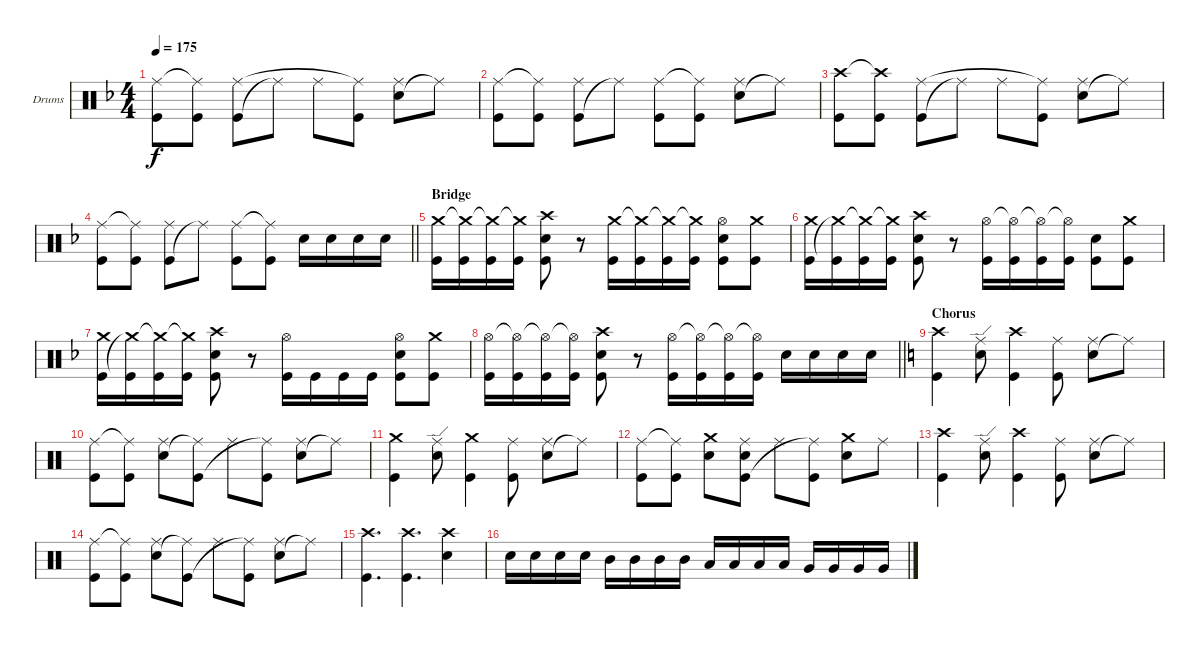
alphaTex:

\bracketExtendMode groupsimilarinstruments
\firstSystemTrackNameOrientation horizontal
\otherSystemsTrackNameOrientation horizontal
\track ("Drumkit" "Drums") {instrument percussion}
\staff {score}
\articulation defaults
\ts (4 4)
\tempo 175
\clef neutral
\ks f
("Kick (hit)" "Ride (middle)").8{dy f} ("Kick (hit)" "Ride (middle)"{t}).8 ("Kick (hit)" "Ride (middle)").8 "Ride (middle)"{t}.8 "Ride (middle)".8 ("Kick (hit)" "Ride (middle)"{t}).8 ("Snare (hit) 2" "Ride (middle)").8 "Ride (middle)"{t}.8 |
("Kick (hit)" "Ride (middle)").8 ("Kick (hit)" "Ride (middle)"{t}).8 ("Kick (hit)" "Ride (middle)").8 "Ride (middle)"{t}.8 ("Kick (hit)" "Ride (middle)").8 ("Kick (hit)" "Ride (middle)"{t}).8 ("Snare (hit) 2" "Ride (middle)").8 "Ride (middle)"{t}.8 |
("Kick (hit)" "Crash high (hit)").8 ("Kick (hit)" "Crash high (hit)"{t}).8 ("Kick (hit)" "Ride (middle)").8 "Ride (middle)"{t}.8 "Ride (middle)".8 ("Kick (hit)" "Ride (middle)"{t}).8 ("Snare (hit) 2" "Ride (middle)").8 "Ride (middle)"{t}.8 |
\barLineRight lightlight
("Kick (hit)" "Ride (middle)").8 ("Kick (hit)" "Ride (middle)"{t}).8 ("Kick (hit)" "Ride (middle)").8 "Ride (middle)"{t}.8 ("Kick (hit)" "Ride (middle)").8 ("Kick (hit)" "Ride (middle)"{t}).8 "Snare (hit) 2".16 "Snare (hit) 2".16 "Snare (hit) 2".16 "Snare (hit) 2".16 |
\section ("" "Bridge")
("Kick (hit)" "Crash medium (hit)").16 ("Kick (hit)" "Crash medium (hit)"{t}).16 ("Kick (hit)" "Crash medium (hit)"{t}).16 ("Kick (hit)" "Crash medium (hit)"{t}).16 ("Crash high (hit)" "Snare (hit) 2" "Kick (hit)").8 r.8 ("Kick (hit)" "Crash medium (hit)").16 ("Kick (hit)" "Crash medium (hit)"{t}).16 ("Kick (hit)" "Crash medium (hit)"{t}).16 ("Kick (hit)" "Crash medium (hit)"{t}).16 ("Snare (hit) 2" "Kick (hit)" "Hi-Hat (open)").8 ("Crash medium (hit)" "Kick (hit)").8 |
("Crash medium (hit)" "Kick (hit)").16 ("Kick (hit)" "Crash medium (hit)"{t}).16 ("Kick (hit)" "Crash medium (hit)"{t}).16 ("Kick (hit)" "Crash medium (hit)"{t}).16 ("Crash high (hit)" "Snare (hit) 2" "Kick (hit)").8 r.8 ("Kick (hit)" "Hi-Hat (open)").16 ("Kick (hit)" "Hi-Hat (open)"{t}).16 ("Kick (hit)" "Hi-Hat (open)"{t}).16 ("Kick (hit)" "Hi-Hat (open)"{t}).16 ("Snare (hit) 2" "Kick (hit)").8 ("Crash medium (hit)" "Kick (hit)").8 |
("Crash medium (hit)" "Kick (hit)").16 ("Kick (hit)" "Crash medium (hit)"{t}).16 ("Kick (hit)" "Crash medium (hit)"{t}).16 ("Kick (hit)" "Crash medium (hit)"{t}).16 ("Crash high (hit)" "Snare (hit) 2" "Kick (hit)").8 r.8 ("Kick (hit)" "Hi-Hat (open)").16 "Kick (hit)".16 "Kick (hit)".16 "Kick (hit)".16 ("Snare (hit) 2" "Kick (hit)" "Hi-Hat (open)").8 ("Crash medium (hit)" "Kick (hit)").8 |
\barLineRight lightlight
("Kick (hit)" "Hi-Hat (open)").16 ("Kick (hit)" "Hi-Hat (open)"{t}).16 ("Kick (hit)" "Hi-Hat (open)"{t}).16 ("Kick (hit)" "Hi-Hat (open)"{t}).16 ("Crash high (hit)" "Snare (hit) 2" "Kick (hit)").8 r.8 ("Kick (hit)" "Hi-Hat (open)").16 ("Kick (hit)" "Hi-Hat (open)"{t}).16 ("Kick (hit)" "Hi-Hat (open)"{t}).16 ("Kick (hit)" "Hi-Hat (open)"{t}).16 "Snare (hit) 2".16 "Snare (hit) 2".16 "Snare (hit) 2".16 "Snare (hit) 2".16 |
\section ("" "Chorus")
\ks c
("Crash high (hit)" "Kick (hit)").4 ("Ride (edge)" "Snare (hit) 2").8 ("Kick (hit)" "Crash high (hit)").4 ("Kick (hit)" "Ride (middle)").8 ("Snare (hit) 2" "Ride (middle)").8 "Ride (middle)"{t}.8 |
("Kick (hit)" "Ride (middle)").8 ("Kick (hit)" "Ride (middle)"{t}).8 ("Snare (hit) 2" "Ride (middle)").8 ("Ride (middle)"{t} "Kick (hit)").8 "Ride (middle)".8 ("Kick (hit)" "Ride (middle)"{t}).8 ("Snare (hit) 2" "Ride (middle)").8 "Ride (middle)"{t}.8 |
("Kick (hit)" "Crash medium (hit)").4 ("Ride (edge)" "Snare (hit) 2").8 ("Kick (hit)" "Crash medium (hit)").4 ("Kick (hit)" "Ride (middle)").8 ("Snare (hit) 2" "Ride (middle)").8 "Ride (middle)"{t}.8 |
("Kick (hit)" "Ride (middle)").8 ("Kick (hit)" "Ride (middle)"{t}).8 ("Snare (hit) 2" "Crash medium (hit)").8 ("Ride (middle)" "Kick (hit)" "Snare (hit) 2").8 "Ride (middle)".8 ("Kick (hit)" "Ride (middle)"{t}).8 ("Snare (hit) 2" "Crash medium (hit)").8 "Ride (middle)".8 |
("Crash high (hit)" "Kick (hit)").4 ("Ride (edge)" "Snare (hit) 2").8 ("Kick (hit)" "Crash high (hit)").4 ("Kick (hit)" "Ride (middle)").8 ("Snare (hit) 2" "Ride (middle)").8 "Ride (middle)"{t}.8 |
("Kick (hit)" "Ride (middle)").8 ("Kick (hit)" "Ride (middle)"{t}).8 ("Snare (hit) 2" "Ride (middle)").8 ("Ride (middle)"{t} "Kick (hit)").8 "Ride (middle)".8 ("Kick (hit)" "Ride (middle)"{t}).8 ("Snare (hit) 2" "Ride (middle)").8 "Ride (middle)"{t}.8 |
("Crash high (hit)" "Kick (hit)").4{d} ("Kick (hit)" "Crash high (hit)").4{d} ("Snare (hit) 2" "Crash high (hit)").4 |
"Snare (hit) 2".16 "Snare (hit) 2".16 "Snare (hit) 2".16 "Snare (hit) 2".16 "Mid Tom (hit)".16 "Mid Tom (hit)".16 "Mid Tom (hit)".16 "Mid Tom (hit)".16 "Low Tom (hit)".16 "Low Tom (hit)".16 "Low Tom (hit)".16 "Low Tom (hit)".16 "Very Low Tom (hit)".16 "Very Low Tom (hit)".16 "Very Low Tom (hit)".16 "Very Low Tom (hit)".16
